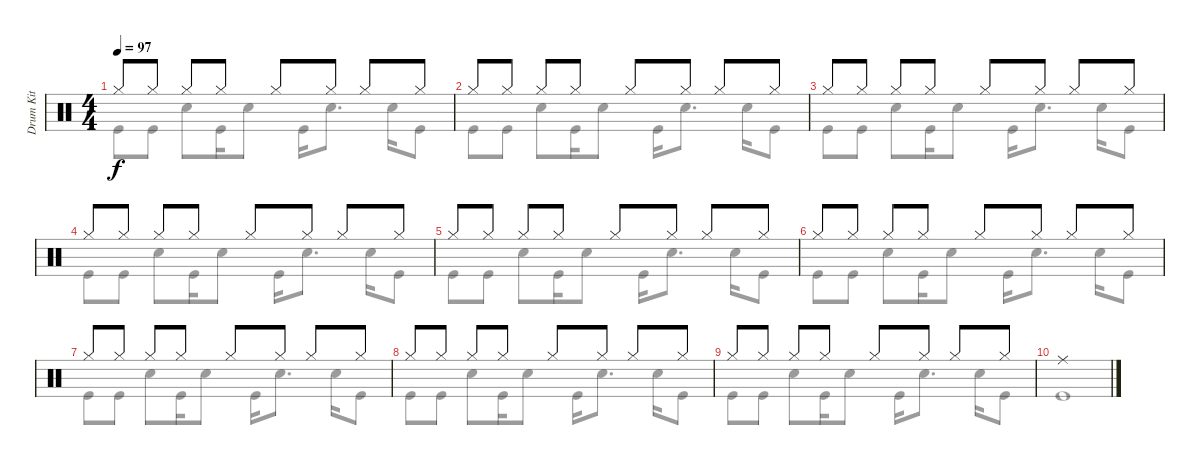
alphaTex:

\track ("Drum Kit" "Drum Kit") {instrument percussion}
\staff {score}
\articulation defaults
\voice
\ts (4 4)
\tempo 97
\clef neutral
\ks aminor "Hi-Hat (closed)".8{dy f} "Hi-Hat (closed)".8 "Hi-Hat (closed)".8 "Hi-Hat (closed)".8 "Hi-Hat (closed)".8 "Hi-Hat (closed)".8 "Hi-Hat (closed)".8 "Hi-Hat (closed)".8
|
"Hi-Hat (closed)".8 "Hi-Hat (closed)".8 "Hi-Hat (closed)".8 "Hi-Hat (closed)".8 "Hi-Hat (closed)".8 "Hi-Hat (closed)".8 "Hi-Hat (closed)".8 "Hi-Hat (closed)".8 |
"Hi-Hat (closed)".8 "Hi-Hat (closed)".8 "Hi-Hat (closed)".8 "Hi-Hat (closed)".8 "Hi-Hat (closed)".8 "Hi-Hat (closed)".8 "Hi-Hat (closed)".8 "Hi-Hat (closed)".8 |
"Hi-Hat (closed)".8 "Hi-Hat (closed)".8 "Hi-Hat (closed)".8 "Hi-Hat (closed)".8 "Hi-Hat (closed)".8 "Hi-Hat (closed)".8 "Hi-Hat (closed)".8 "Hi-Hat (closed)".8 |
"Hi-Hat (closed)".8 "Hi-Hat (closed)".8 "Hi-Hat (closed)".8 "Hi-Hat (closed)".8 "Hi-Hat (closed)".8 "Hi-Hat (closed)".8 "Hi-Hat (closed)".8 "Hi-Hat (closed)".8 |
"Hi-Hat (closed)".8 "Hi-Hat (closed)".8 "Hi-Hat (closed)".8 "Hi-Hat (closed)".8 "Hi-Hat (closed)".8 "Hi-Hat (closed)".8 "Hi-Hat (closed)".8 "Hi-Hat (closed)".8 |
"Hi-Hat (closed)".8 "Hi-Hat (closed)".8 "Hi-Hat (closed)".8 "Hi-Hat (closed)".8 "Hi-Hat (closed)".8 "Hi-Hat (closed)".8 "Hi-Hat (closed)".8 "Hi-Hat (closed)".8 |
"Hi-Hat (closed)".8 "Hi-Hat (closed)".8 "Hi-Hat (closed)".8 "Hi-Hat (closed)".8 "Hi-Hat (closed)".8 "Hi-Hat (closed)".8 "Hi-Hat (closed)".8 "Hi-Hat (closed)".8 |
"Hi-Hat (closed)".8 "Hi-Hat (closed)".8 "Hi-Hat (closed)".8 "Hi-Hat (closed)".8 "Hi-Hat (closed)".8 "Hi-Hat (closed)".8 "Hi-Hat (closed)".8 "Hi-Hat (closed)".8 |
"Ride (middle)".1
\voice
\clef neutral
\ottava regular
\simile none
\ks aminor "Kick (hit)".8{dy f} "Kick (hit)".8 "Snare (hit) 2".8 "Kick (hit)".16 "Snare (hit) 2".8 "Kick (hit)".16 "Snare (hit) 2".8{d} "Snare (hit) 2".16 "Kick (hit)".8
|
"Kick (hit)".8 "Kick (hit)".8 "Snare (hit) 2".8 "Kick (hit)".16 "Snare (hit) 2".8 "Kick (hit)".16 "Snare (hit) 2".8{d} "Snare (hit) 2".16 "Kick (hit)".8 |
"Kick (hit)".8 "Kick (hit)".8 "Snare (hit) 2".8 "Kick (hit)".16 "Snare (hit) 2".8 "Kick (hit)".16 "Snare (hit) 2".8{d} "Snare (hit) 2".16 "Kick (hit)".8 |
"Kick (hit)".8 "Kick (hit)".8 "Snare (hit) 2".8 "Kick (hit)".16 "Snare (hit) 2".8 "Kick (hit)".16 "Snare (hit) 2".8{d} "Snare (hit) 2".16 "Kick (hit)".8 |
"Kick (hit)".8 "Kick (hit)".8 "Snare (hit) 2".8 "Kick (hit)".16 "Snare (hit) 2".8 "Kick (hit)".16 "Snare (hit) 2".8{d} "Snare (hit) 2".16 "Kick (hit)".8 |
"Kick (hit)".8 "Kick (hit)".8 "Snare (hit) 2".8 "Kick (hit)".16 "Snare (hit) 2".8 "Kick (hit)".16 "Snare (hit) 2".8{d} "Snare (hit) 2".16 "Kick (hit)".8 |
"Kick (hit)".8 "Kick (hit)".8 "Snare (hit) 2".8 "Kick (hit)".16 "Snare (hit) 2".8 "Kick (hit)".16 "Snare (hit) 2".8{d} "Snare (hit) 2".16 "Kick (hit)".8 |
"Kick (hit)".8 "Kick (hit)".8 "Snare (hit) 2".8 "Kick (hit)".16 "Snare (hit) 2".8 "Kick (hit)".16 "Snare (hit) 2".8{d} "Snare (hit) 2".16 "Kick (hit)".8 |
"Kick (hit)".8 "Kick (hit)".8 "Snare (hit) 2".8 "Kick (hit)".16 "Snare (hit) 2".8 "Kick (hit)".16 "Snare (hit) 2".8{d} "Snare (hit) 2".16 "Kick (hit)".8 |
"Kick (hit)".1
